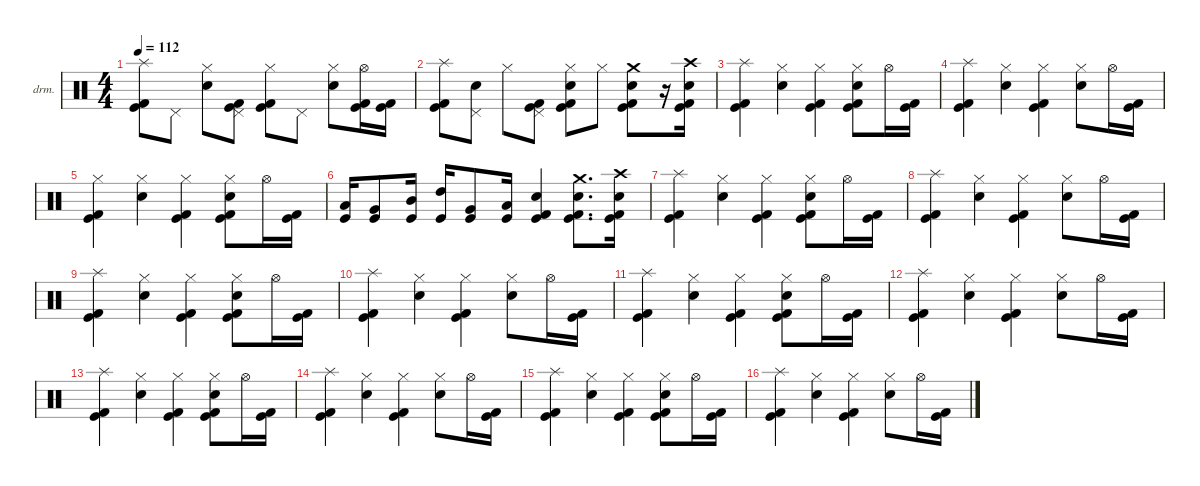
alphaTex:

\defaultSystemsLayout 4
\hideDynamics
\bracketExtendMode nobrackets
\firstSystemTrackNameOrientation horizontal
\otherSystemsTrackNameOrientation horizontal
\track ("Drums" "drm.") {instrument percussion}
\staff {score}
\articulation defaults
\ts (4 4)
\tempo 112
\clef neutral
\ks c
("Splash (hit)" "Kick (hit) 2" "Kick (hit)").8{dy f} "Pedal Hi-Hat (hit)".8{dy ff} ("Hi-Hat (closed)" "Snare (hit) 2").8{dy f} ("Pedal Hi-Hat (hit)" "Kick (hit)" "Kick (hit) 2").8{dy ff} ("Hi-Hat (closed)" "Kick (hit)" "Kick (hit) 2").8{dy f} "Pedal Hi-Hat (hit)".8{dy ff} ("Hi-Hat (closed)" "Snare (hit) 2").8{dy f} ("Hi-Hat (open)" "Kick (hit) 2" "Kick (hit)").16 ("Kick (hit) 2" "Kick (hit)").16 |
("Splash (hit)" "Kick (hit) 2" "Kick (hit)").8 ("Pedal Hi-Hat (hit)" "Snare (hit) 2").8{dy ff} "Hi-Hat (closed)".8{dy f} ("Pedal Hi-Hat (hit)" "Kick (hit)" "Kick (hit) 2").8{dy ff} ("Hi-Hat (closed)" "Snare (hit) 2" "Kick (hit)" "Kick (hit) 2").8{dy f} "Hi-Hat (closed)".8{dy ff} ("Crash medium (hit)" "Snare (hit) 2" "Kick (hit) 2" "Kick (hit)").8{dy f} r.16 ("Crash high (hit)" "Snare (hit) 2" "Kick (hit) 2" "Kick (hit)").16 |
("Splash (hit)" "Kick (hit) 2" "Kick (hit)").4 ("Hi-Hat (closed)" "Snare (hit) 2").4 ("Hi-Hat (closed)" "Kick (hit) 2" "Kick (hit)").4 ("Hi-Hat (closed)" "Snare (hit) 2" "Kick (hit) 2" "Kick (hit)").8 "Hi-Hat (open)".16 ("Kick (hit) 2" "Kick (hit)").16 |
("Splash (hit)" "Kick (hit) 2" "Kick (hit)").4 ("Hi-Hat (closed)" "Snare (hit) 2").4 ("Hi-Hat (closed)" "Kick (hit) 2" "Kick (hit)").4 ("Hi-Hat (closed)" "Snare (hit) 2").8 "Hi-Hat (open)".16 ("Kick (hit) 2" "Kick (hit)").16 |
("Hi-Hat (closed)" "Kick (hit) 2" "Kick (hit)").4 ("Hi-Hat (closed)" "Snare (hit) 2").4 ("Hi-Hat (closed)" "Kick (hit) 2" "Kick (hit)").4 ("Hi-Hat (closed)" "Snare (hit) 2" "Kick (hit) 2" "Kick (hit)").8 "Hi-Hat (open)".16 ("Kick (hit) 2" "Kick (hit)").16 |
("Low Tom (hit)" "Kick (hit)").16 ("Very Low Tom (hit)" "Kick (hit)").8 ("Mid Tom (hit)" "Kick (hit)").16 ("High Tom (hit)" "Kick (hit)").16 ("Very Low Tom (hit)" "Kick (hit)").8 ("Low Floor Tom (hit)" "Kick (hit)").16 ("Snare (hit) 2" "Kick (hit) 2" "Kick (hit)").4 ("Crash medium (hit)" "Snare (hit) 2" "Kick (hit) 2" "Kick (hit)").8{d} ("Crash high (hit)" "Snare (hit) 2" "Kick (hit) 2" "Kick (hit)").16 |
("Splash (hit)" "Kick (hit) 2" "Kick (hit)").4 ("Hi-Hat (closed)" "Snare (hit) 2").4 ("Hi-Hat (closed)" "Kick (hit) 2" "Kick (hit)").4 ("Hi-Hat (closed)" "Snare (hit) 2" "Kick (hit) 2" "Kick (hit)").8 "Hi-Hat (open)".16 ("Kick (hit) 2" "Kick (hit)").16 |
("Splash (hit)" "Kick (hit) 2" "Kick (hit)").4 ("Hi-Hat (closed)" "Snare (hit) 2").4 ("Hi-Hat (closed)" "Kick (hit) 2" "Kick (hit)").4 ("Hi-Hat (closed)" "Snare (hit) 2").8 "Hi-Hat (open)".16 ("Kick (hit) 2" "Kick (hit)").16 |
("Splash (hit)" "Kick (hit) 2" "Kick (hit)").4 ("Hi-Hat (closed)" "Snare (hit) 2").4 ("Hi-Hat (closed)" "Kick (hit) 2" "Kick (hit)").4 ("Hi-Hat (closed)" "Snare (hit) 2" "Kick (hit) 2" "Kick (hit)").8 "Hi-Hat (open)".16 ("Kick (hit) 2" "Kick (hit)").16 |
("Splash (hit)" "Kick (hit) 2" "Kick (hit)").4 ("Hi-Hat (closed)" "Snare (hit) 2").4 ("Hi-Hat (closed)" "Kick (hit) 2" "Kick (hit)").4 ("Hi-Hat (closed)" "Snare (hit) 2").8 "Hi-Hat (open)".16 ("Kick (hit) 2" "Kick (hit)").16 |
("Splash (hit)" "Kick (hit) 2" "Kick (hit)").4 ("Hi-Hat (closed)" "Snare (hit) 2").4 ("Hi-Hat (closed)" "Kick (hit) 2" "Kick (hit)").4 ("Hi-Hat (closed)" "Snare (hit) 2" "Kick (hit) 2" "Kick (hit)").8 "Hi-Hat (open)".16 ("Kick (hit) 2" "Kick (hit)").16 |
("Splash (hit)" "Kick (hit) 2" "Kick (hit)").4 ("Hi-Hat (closed)" "Snare (hit) 2").4 ("Hi-Hat (closed)" "Kick (hit) 2" "Kick (hit)").4 ("Hi-Hat (closed)" "Snare (hit) 2").8 "Hi-Hat (open)".16 ("Kick (hit) 2" "Kick (hit)").16 |
("Splash (hit)" "Kick (hit) 2" "Kick (hit)").4 ("Hi-Hat (closed)" "Snare (hit) 2").4 ("Hi-Hat (closed)" "Kick (hit) 2" "Kick (hit)").4 ("Hi-Hat (closed)" "Snare (hit) 2" "Kick (hit) 2" "Kick (hit)").8 "Hi-Hat (open)".16 ("Kick (hit) 2" "Kick (hit)").16 |
("Splash (hit)" "Kick (hit) 2" "Kick (hit)").4 ("Hi-Hat (closed)" "Snare (hit) 2").4 ("Hi-Hat (closed)" "Kick (hit) 2" "Kick (hit)").4 ("Hi-Hat (closed)" "Snare (hit) 2").8 "Hi-Hat (open)".16 ("Kick (hit) 2" "Kick (hit)").16 |
("Splash (hit)" "Kick (hit) 2" "Kick (hit)").4 ("Hi-Hat (closed)" "Snare (hit) 2").4 ("Hi-Hat (closed)" "Kick (hit) 2" "Kick (hit)").4 ("Hi-Hat (closed)" "Snare (hit) 2" "Kick (hit) 2" "Kick (hit)").8 "Hi-Hat (open)".16 ("Kick (hit) 2" "Kick (hit)").16 |
("Splash (hit)" "Kick (hit) 2" "Kick (hit)").4 ("Hi-Hat (closed)" "Snare (hit) 2").4 ("Hi-Hat (closed)" "Kick (hit) 2" "Kick (hit)").4 ("Hi-Hat (closed)" "Snare (hit) 2").8 "Hi-Hat (open)".16 ("Kick (hit) 2" "Kick (hit)").16
